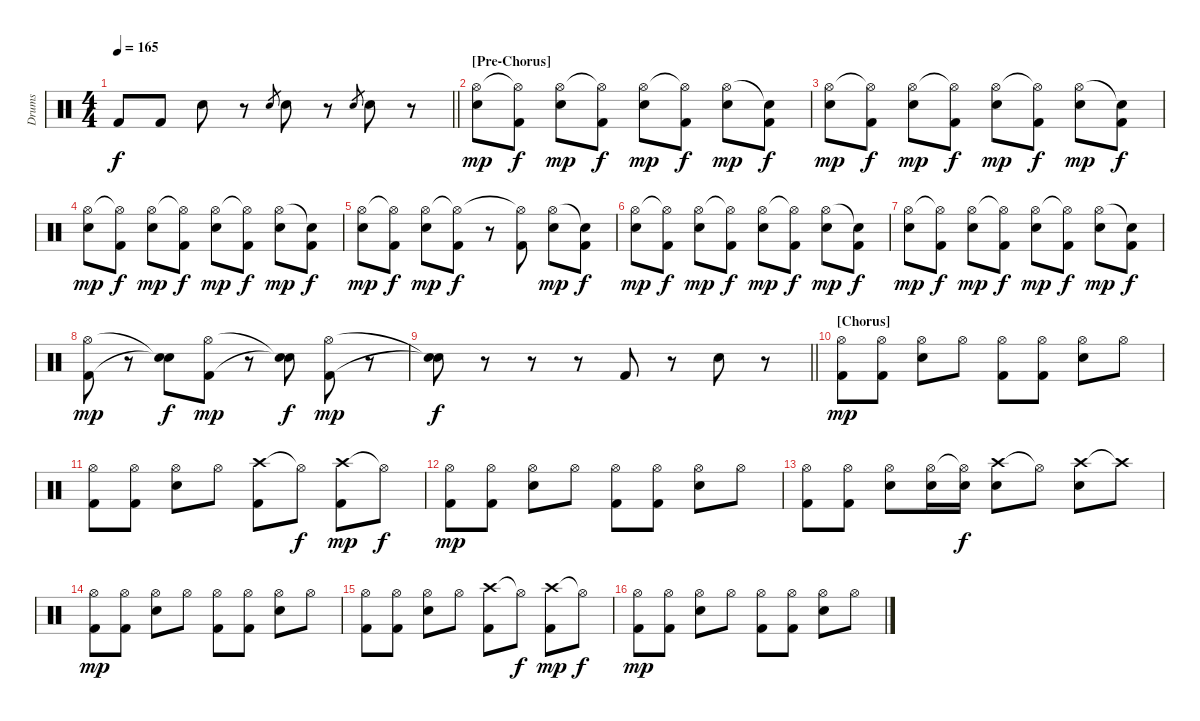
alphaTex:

\track ("Drums" "Drums") {instrument percussion}
\staff {score}
\articulation defaults
\ts (4 4)
\tempo 165
\clef neutral
\barLineRight lightlight
\ks c "Kick (hit) 2".8{dy f} "Kick (hit) 2".8 "Electric Snare (hit)".8
r.8 "Electric Snare (hit)".8{gr} "Electric Snare (hit)".8 r.8 "Electric Snare (hit)".8{gr} "Electric Snare (hit)".8 r.8 |
\section ("" "[Pre-Chorus]")
("Hi-Hat (open)" "Electric Snare (hit)").8{dy mp} ("Hi-Hat (open)"{t} "Kick (hit) 2").8{dy f} ("Hi-Hat (open)" "Electric Snare (hit)").8{dy mp} ("Hi-Hat (open)"{t} "Kick (hit) 2").8{dy f} ("Hi-Hat (open)" "Electric Snare (hit)").8{dy mp} ("Hi-Hat (open)"{t} "Kick (hit) 2").8{dy f} ("Hi-Hat (open)" "Electric Snare (hit)").8{dy mp} ("Snare (hit)"{t} "Kick (hit) 2").8{dy f} |
("Hi-Hat (open)" "Electric Snare (hit)").8{dy mp} ("Hi-Hat (open)"{t} "Kick (hit) 2").8{dy f} ("Hi-Hat (open)" "Electric Snare (hit)").8{dy mp} ("Hi-Hat (open)"{t} "Kick (hit) 2").8{dy f} ("Hi-Hat (open)" "Electric Snare (hit)").8{dy mp} ("Hi-Hat (open)"{t} "Kick (hit) 2").8{dy f} ("Hi-Hat (open)" "Electric Snare (hit)").8{dy mp} ("Snare (hit)"{t} "Kick (hit) 2").8{dy f} |
("Hi-Hat (open)" "Electric Snare (hit)").8{dy mp} ("Hi-Hat (open)"{t} "Kick (hit) 2").8{dy f} ("Hi-Hat (open)" "Electric Snare (hit)").8{dy mp} ("Hi-Hat (open)"{t} "Kick (hit) 2").8{dy f} ("Hi-Hat (open)" "Electric Snare (hit)").8{dy mp} ("Hi-Hat (open)"{t} "Kick (hit) 2").8{dy f} ("Hi-Hat (open)" "Electric Snare (hit)").8{dy mp} ("Snare (hit)"{t} "Kick (hit) 2").8{dy f} |
("Hi-Hat (open)" "Electric Snare (hit)").8{dy mp} ("Hi-Hat (open)"{t} "Kick (hit) 2").8{dy f} ("Hi-Hat (open)" "Electric Snare (hit)").8{dy mp} ("Hi-Hat (open)"{t} "Kick (hit) 2").8{dy f} r.8 ("Hi-Hat (open)"{t} "Kick (hit) 2").8 ("Hi-Hat (open)" "Electric Snare (hit)").8{dy mp} ("Snare (hit)"{t} "Kick (hit) 2").8{dy f} |
("Hi-Hat (open)" "Electric Snare (hit)").8{dy mp} ("Hi-Hat (open)"{t} "Kick (hit) 2").8{dy f} ("Hi-Hat (open)" "Electric Snare (hit)").8{dy mp} ("Hi-Hat (open)"{t} "Kick (hit) 2").8{dy f} ("Hi-Hat (open)" "Electric Snare (hit)").8{dy mp} ("Hi-Hat (open)"{t} "Kick (hit) 2").8{dy f} ("Hi-Hat (open)" "Electric Snare (hit)").8{dy mp} ("Snare (hit)"{t} "Kick (hit) 2").8{dy f} |
("Hi-Hat (open)" "Electric Snare (hit)").8{dy mp} ("Hi-Hat (open)"{t} "Kick (hit) 2").8{dy f} ("Hi-Hat (open)" "Electric Snare (hit)").8{dy mp} ("Hi-Hat (open)"{t} "Kick (hit) 2").8{dy f} ("Hi-Hat (open)" "Electric Snare (hit)").8{dy mp} ("Hi-Hat (open)"{t} "Kick (hit) 2").8{dy f} ("Hi-Hat (open)" "Electric Snare (hit)").8{dy mp} ("Snare (hit)"{t} "Kick (hit) 2").8{dy f} |
("Hi-Hat (open)" "Kick (hit) 2").8{dy mp} r.8 ("Snare (hit)"{t} "Snare (hit)"{t}).8{dy f} ("Hi-Hat (open)" "Kick (hit) 2").8{dy mp} r.8 ("Snare (hit)"{t} "Snare (hit)"{t}).8{dy f} ("Hi-Hat (open)" "Kick (hit) 2").8{dy mp} r.8 |
\barLineRight lightlight
("Snare (hit)"{t} "Snare (hit)"{t}).8{dy f} r.8 r.8 r.8 "Kick (hit) 2".8 r.8 "Electric Snare (hit)".8 r.8 |
\section ("" "[Chorus]")
("Hi-Hat (open)" "Kick (hit) 2").8{dy mp} ("Hi-Hat (open)" "Kick (hit) 2").8 ("Hi-Hat (open)" "Electric Snare (hit)").8 "Hi-Hat (open)".8 ("Hi-Hat (open)" "Kick (hit) 2").8 ("Hi-Hat (open)" "Kick (hit) 2").8 ("Hi-Hat (open)" "Electric Snare (hit)").8 "Hi-Hat (open)".8 |
("Hi-Hat (open)" "Kick (hit) 2").8 ("Hi-Hat (open)" "Kick (hit) 2").8 ("Hi-Hat (open)" "Electric Snare (hit)").8 "Hi-Hat (open)".8 ("Crash high (hit)" "Kick (hit) 2").8 "Hi-Hat (open)"{t}.8{dy f} ("Crash high (hit)" "Kick (hit) 2").8{dy mp} "Hi-Hat (open)"{t}.8{dy f} |
("Hi-Hat (open)" "Kick (hit) 2").8{dy mp} ("Hi-Hat (open)" "Kick (hit) 2").8 ("Hi-Hat (open)" "Electric Snare (hit)").8 "Hi-Hat (open)".8 ("Hi-Hat (open)" "Kick (hit) 2").8 ("Hi-Hat (open)" "Kick (hit) 2").8 ("Hi-Hat (open)" "Electric Snare (hit)").8 "Hi-Hat (open)".8 |
("Hi-Hat (open)" "Kick (hit) 2").8 ("Hi-Hat (open)" "Kick (hit) 2").8 ("Hi-Hat (open)" "Electric Snare (hit)").8 ("Hi-Hat (open)" "Electric Snare (hit)").16 ("Hi-Hat (open)"{t} "Electric Snare (hit)").16{dy f} ("Crash high (hit)" "Electric Snare (hit)").8 "Hi-Hat (open)"{t}.8 ("Crash high (hit)" "Electric Snare (hit)").8 "Crash high (hit)"{t}.8 |
("Hi-Hat (open)" "Kick (hit) 2").8{dy mp} ("Hi-Hat (open)" "Kick (hit) 2").8 ("Hi-Hat (open)" "Electric Snare (hit)").8 "Hi-Hat (open)".8 ("Hi-Hat (open)" "Kick (hit) 2").8 ("Hi-Hat (open)" "Kick (hit) 2").8 ("Hi-Hat (open)" "Electric Snare (hit)").8 "Hi-Hat (open)".8 |
("Hi-Hat (open)" "Kick (hit) 2").8 ("Hi-Hat (open)" "Kick (hit) 2").8 ("Hi-Hat (open)" "Electric Snare (hit)").8 "Hi-Hat (open)".8 ("Crash high (hit)" "Kick (hit) 2").8 "Hi-Hat (open)"{t}.8{dy f} ("Crash high (hit)" "Kick (hit) 2").8{dy mp} "Hi-Hat (open)"{t}.8{dy f} |
("Hi-Hat (open)" "Kick (hit) 2").8{dy mp} ("Hi-Hat (open)" "Kick (hit) 2").8 ("Hi-Hat (open)" "Electric Snare (hit)").8 "Hi-Hat (open)".8 ("Hi-Hat (open)" "Kick (hit) 2").8 ("Hi-Hat (open)" "Kick (hit) 2").8 ("Hi-Hat (open)" "Electric Snare (hit)").8 "Hi-Hat (open)".8
